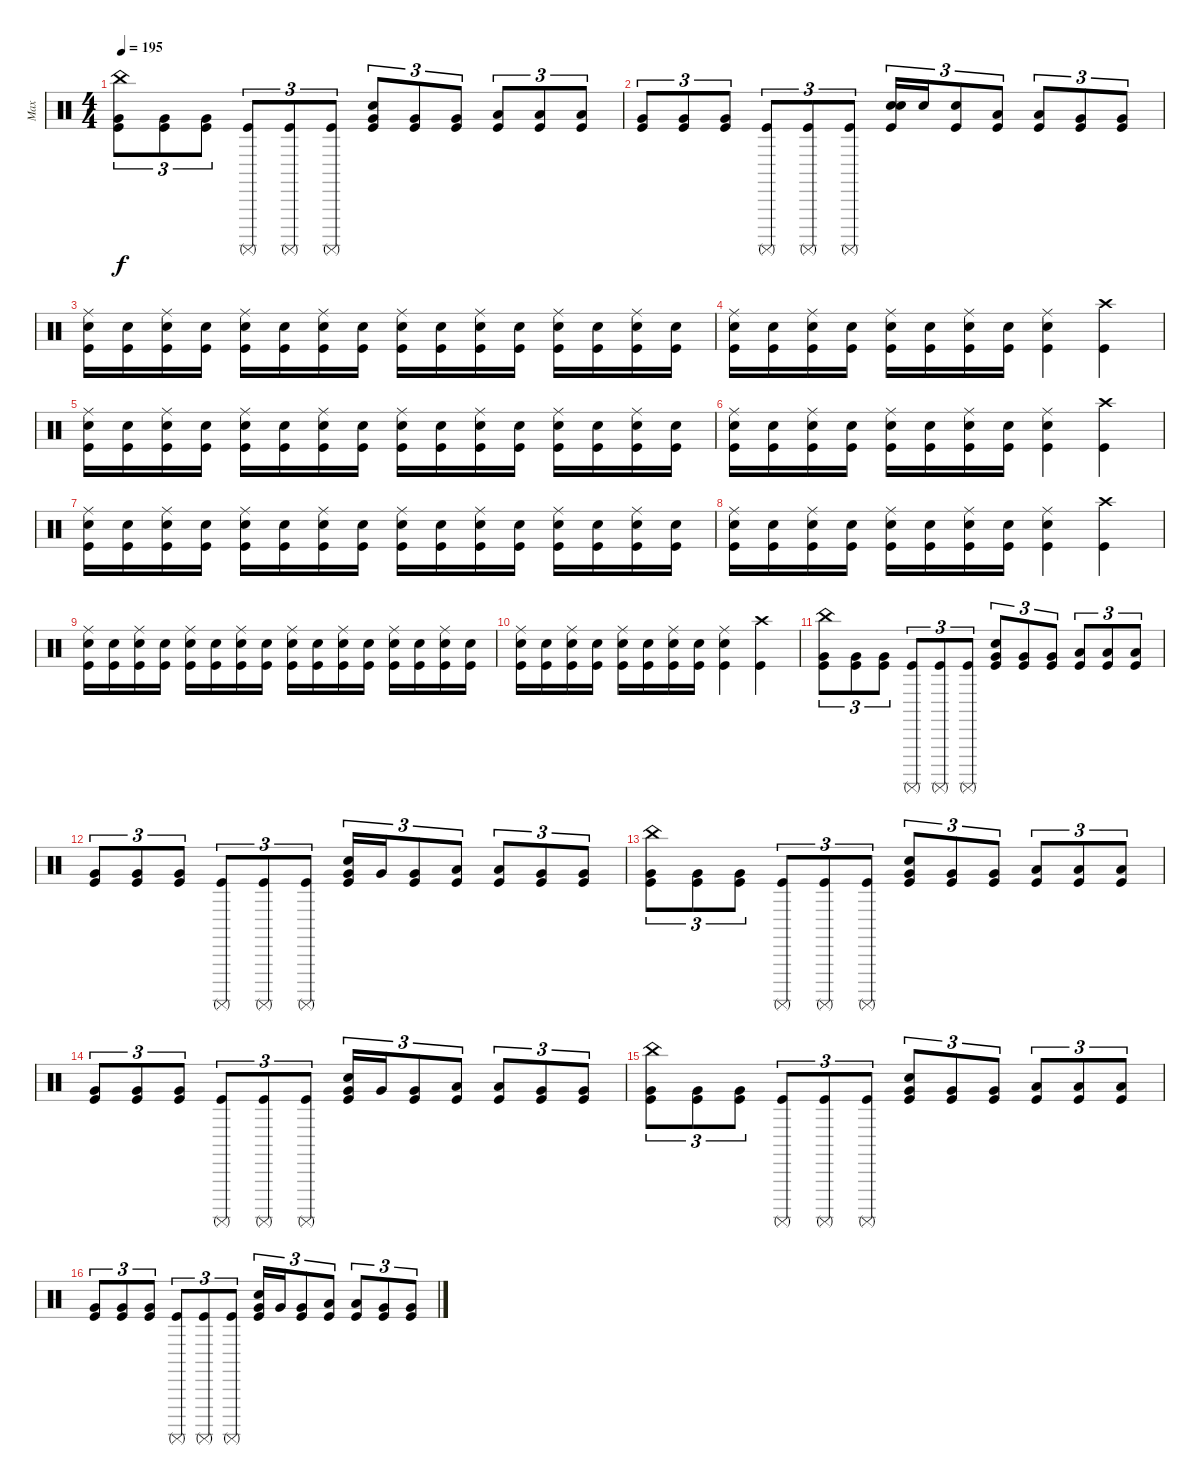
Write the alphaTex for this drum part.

\track ("Max" "Max") {instrument percussion}
\staff {score}
\articulation defaults
\ts (4 4)
\tempo 195
\clef neutral
\ks c
("China (hit)" "Very Low Tom (hit)" "Kick (hit)").8{tu (3 2) dy f} ("Very Low Tom (hit)" "Kick (hit)").8{tu (3 2)} ("Very Low Tom (hit)" "Kick (hit)").8{tu (3 2)} ("Surdo (mute)" "Kick (hit)").8{tu (3 2)} ("Surdo (mute)" "Kick (hit)").8{tu (3 2)} ("Surdo (mute)" "Kick (hit)").8{tu (3 2)} ("Very Low Tom (hit)" "Electric Snare (hit)" "Kick (hit)").8{tu (3 2)} ("Very Low Tom (hit)" "Kick (hit)").8{tu (3 2)} ("Very Low Tom (hit)" "Kick (hit)").8{tu (3 2)} ("Low Tom (hit)" "Kick (hit)").8{tu (3 2)} ("Low Tom (hit)" "Kick (hit)").8{tu (3 2)} ("Low Tom (hit)" "Kick (hit)").8{tu (3 2)} |
("Very Low Tom (hit)" "Kick (hit)").8{tu (3 2)} ("Very Low Tom (hit)" "Kick (hit)").8{tu (3 2)} ("Very Low Tom (hit)" "Kick (hit)").8{tu (3 2)} ("Surdo (mute)" "Kick (hit)").8{tu (3 2)} ("Surdo (mute)" "Kick (hit)").8{tu (3 2)} ("Surdo (mute)" "Kick (hit)").8{tu (3 2)} ("Electric Snare (hit)" "Electric Snare (hit)" "Kick (hit)").16{tu (3 2)} "Electric Snare (hit)".16{tu (3 2)} ("Electric Snare (hit)" "Kick (hit)").8{tu (3 2)} ("Low Tom (hit)" "Kick (hit)").8{tu (3 2)} ("Low Tom (hit)" "Kick (hit)").8{tu (3 2)} ("Very Low Tom (hit)" "Kick (hit)").8{tu (3 2)} ("Very Low Tom (hit)" "Kick (hit)").8{tu (3 2)} |
("Ride (middle)" "Electric Snare (hit)" "Kick (hit)").16 ("Electric Snare (hit)" "Kick (hit)").16 ("Ride (middle)" "Electric Snare (hit)" "Kick (hit)").16 ("Electric Snare (hit)" "Kick (hit)").16 ("Ride (middle)" "Electric Snare (hit)" "Kick (hit)").16 ("Electric Snare (hit)" "Kick (hit)").16 ("Ride (middle)" "Electric Snare (hit)" "Kick (hit)").16 ("Electric Snare (hit)" "Kick (hit)").16 ("Ride (middle)" "Electric Snare (hit)" "Kick (hit)").16 ("Electric Snare (hit)" "Kick (hit)").16 ("Ride (middle)" "Electric Snare (hit)" "Kick (hit)").16 ("Electric Snare (hit)" "Kick (hit)").16 ("Ride (middle)" "Electric Snare (hit)" "Kick (hit)").16 ("Electric Snare (hit)" "Kick (hit)").16 ("Ride (middle)" "Electric Snare (hit)" "Kick (hit)").16 ("Electric Snare (hit)" "Kick (hit)").16 |
("Ride (middle)" "Electric Snare (hit)" "Kick (hit)").16 ("Electric Snare (hit)" "Kick (hit)").16 ("Ride (middle)" "Electric Snare (hit)" "Kick (hit)").16 ("Electric Snare (hit)" "Kick (hit)").16 ("Ride (middle)" "Electric Snare (hit)" "Kick (hit)").16 ("Electric Snare (hit)" "Kick (hit)").16 ("Ride (middle)" "Electric Snare (hit)" "Kick (hit)").16 ("Electric Snare (hit)" "Kick (hit)").16 ("Ride (middle)" "Electric Snare (hit)" "Kick (hit)").4 ("Crash high (hit)" "Kick (hit)").4 |
("Ride (middle)" "Electric Snare (hit)" "Kick (hit)").16 ("Electric Snare (hit)" "Kick (hit)").16 ("Ride (middle)" "Electric Snare (hit)" "Kick (hit)").16 ("Electric Snare (hit)" "Kick (hit)").16 ("Ride (middle)" "Electric Snare (hit)" "Kick (hit)").16 ("Electric Snare (hit)" "Kick (hit)").16 ("Ride (middle)" "Electric Snare (hit)" "Kick (hit)").16 ("Electric Snare (hit)" "Kick (hit)").16 ("Ride (middle)" "Electric Snare (hit)" "Kick (hit)").16 ("Electric Snare (hit)" "Kick (hit)").16 ("Ride (middle)" "Electric Snare (hit)" "Kick (hit)").16 ("Electric Snare (hit)" "Kick (hit)").16 ("Ride (middle)" "Electric Snare (hit)" "Kick (hit)").16 ("Electric Snare (hit)" "Kick (hit)").16 ("Ride (middle)" "Electric Snare (hit)" "Kick (hit)").16 ("Electric Snare (hit)" "Kick (hit)").16 |
("Ride (middle)" "Electric Snare (hit)" "Kick (hit)").16 ("Electric Snare (hit)" "Kick (hit)").16 ("Ride (middle)" "Electric Snare (hit)" "Kick (hit)").16 ("Electric Snare (hit)" "Kick (hit)").16 ("Ride (middle)" "Electric Snare (hit)" "Kick (hit)").16 ("Electric Snare (hit)" "Kick (hit)").16 ("Ride (middle)" "Electric Snare (hit)" "Kick (hit)").16 ("Electric Snare (hit)" "Kick (hit)").16 ("Ride (middle)" "Electric Snare (hit)" "Kick (hit)").4 ("Crash high (hit)" "Kick (hit)").4 |
("Ride (middle)" "Electric Snare (hit)" "Kick (hit)").16 ("Electric Snare (hit)" "Kick (hit)").16 ("Ride (middle)" "Electric Snare (hit)" "Kick (hit)").16 ("Electric Snare (hit)" "Kick (hit)").16 ("Ride (middle)" "Electric Snare (hit)" "Kick (hit)").16 ("Electric Snare (hit)" "Kick (hit)").16 ("Ride (middle)" "Electric Snare (hit)" "Kick (hit)").16 ("Electric Snare (hit)" "Kick (hit)").16 ("Ride (middle)" "Electric Snare (hit)" "Kick (hit)").16 ("Electric Snare (hit)" "Kick (hit)").16 ("Ride (middle)" "Electric Snare (hit)" "Kick (hit)").16 ("Electric Snare (hit)" "Kick (hit)").16 ("Ride (middle)" "Electric Snare (hit)" "Kick (hit)").16 ("Electric Snare (hit)" "Kick (hit)").16 ("Ride (middle)" "Electric Snare (hit)" "Kick (hit)").16 ("Electric Snare (hit)" "Kick (hit)").16 |
("Ride (middle)" "Electric Snare (hit)" "Kick (hit)").16 ("Electric Snare (hit)" "Kick (hit)").16 ("Ride (middle)" "Electric Snare (hit)" "Kick (hit)").16 ("Electric Snare (hit)" "Kick (hit)").16 ("Ride (middle)" "Electric Snare (hit)" "Kick (hit)").16 ("Electric Snare (hit)" "Kick (hit)").16 ("Ride (middle)" "Electric Snare (hit)" "Kick (hit)").16 ("Electric Snare (hit)" "Kick (hit)").16 ("Ride (middle)" "Electric Snare (hit)" "Kick (hit)").4 ("Crash high (hit)" "Kick (hit)").4 |
("Ride (middle)" "Electric Snare (hit)" "Kick (hit)").16 ("Electric Snare (hit)" "Kick (hit)").16 ("Ride (middle)" "Electric Snare (hit)" "Kick (hit)").16 ("Electric Snare (hit)" "Kick (hit)").16 ("Ride (middle)" "Electric Snare (hit)" "Kick (hit)").16 ("Electric Snare (hit)" "Kick (hit)").16 ("Ride (middle)" "Electric Snare (hit)" "Kick (hit)").16 ("Electric Snare (hit)" "Kick (hit)").16 ("Ride (middle)" "Electric Snare (hit)" "Kick (hit)").16 ("Electric Snare (hit)" "Kick (hit)").16 ("Ride (middle)" "Electric Snare (hit)" "Kick (hit)").16 ("Electric Snare (hit)" "Kick (hit)").16 ("Ride (middle)" "Electric Snare (hit)" "Kick (hit)").16 ("Electric Snare (hit)" "Kick (hit)").16 ("Ride (middle)" "Electric Snare (hit)" "Kick (hit)").16 ("Electric Snare (hit)" "Kick (hit)").16 |
("Ride (middle)" "Electric Snare (hit)" "Kick (hit)").16 ("Electric Snare (hit)" "Kick (hit)").16 ("Ride (middle)" "Electric Snare (hit)" "Kick (hit)").16 ("Electric Snare (hit)" "Kick (hit)").16 ("Ride (middle)" "Electric Snare (hit)" "Kick (hit)").16 ("Electric Snare (hit)" "Kick (hit)").16 ("Ride (middle)" "Electric Snare (hit)" "Kick (hit)").16 ("Electric Snare (hit)" "Kick (hit)").16 ("Ride (middle)" "Electric Snare (hit)" "Kick (hit)").4 ("Crash high (hit)" "Kick (hit)").4 |
("China (hit)" "Very Low Tom (hit)" "Kick (hit)").8{tu (3 2)} ("Very Low Tom (hit)" "Kick (hit)").8{tu (3 2)} ("Very Low Tom (hit)" "Kick (hit)").8{tu (3 2)} ("Surdo (mute)" "Kick (hit)").8{tu (3 2)} ("Surdo (mute)" "Kick (hit)").8{tu (3 2)} ("Surdo (mute)" "Kick (hit)").8{tu (3 2)} ("Very Low Tom (hit)" "Electric Snare (hit)" "Kick (hit)").8{tu (3 2)} ("Very Low Tom (hit)" "Kick (hit)").8{tu (3 2)} ("Very Low Tom (hit)" "Kick (hit)").8{tu (3 2)} ("Low Tom (hit)" "Kick (hit)").8{tu (3 2)} ("Low Tom (hit)" "Kick (hit)").8{tu (3 2)} ("Low Tom (hit)" "Kick (hit)").8{tu (3 2)} |
("Very Low Tom (hit)" "Kick (hit)").8{tu (3 2)} ("Very Low Tom (hit)" "Kick (hit)").8{tu (3 2)} ("Very Low Tom (hit)" "Kick (hit)").8{tu (3 2)} ("Surdo (mute)" "Kick (hit)").8{tu (3 2)} ("Surdo (mute)" "Kick (hit)").8{tu (3 2)} ("Surdo (mute)" "Kick (hit)").8{tu (3 2)} ("Very Low Tom (hit)" "Electric Snare (hit)" "Kick (hit)").16{tu (3 2)} "Very Low Tom (hit)".16{tu (3 2)} ("Very Low Tom (hit)" "Kick (hit)").8{tu (3 2)} ("Low Tom (hit)" "Kick (hit)").8{tu (3 2)} ("Low Tom (hit)" "Kick (hit)").8{tu (3 2)} ("Very Low Tom (hit)" "Kick (hit)").8{tu (3 2)} ("Very Low Tom (hit)" "Kick (hit)").8{tu (3 2)} |
("China (hit)" "Very Low Tom (hit)" "Kick (hit)").8{tu (3 2)} ("Very Low Tom (hit)" "Kick (hit)").8{tu (3 2)} ("Very Low Tom (hit)" "Kick (hit)").8{tu (3 2)} ("Surdo (mute)" "Kick (hit)").8{tu (3 2)} ("Surdo (mute)" "Kick (hit)").8{tu (3 2)} ("Surdo (mute)" "Kick (hit)").8{tu (3 2)} ("Very Low Tom (hit)" "Electric Snare (hit)" "Kick (hit)").8{tu (3 2)} ("Very Low Tom (hit)" "Kick (hit)").8{tu (3 2)} ("Very Low Tom (hit)" "Kick (hit)").8{tu (3 2)} ("Low Tom (hit)" "Kick (hit)").8{tu (3 2)} ("Low Tom (hit)" "Kick (hit)").8{tu (3 2)} ("Low Tom (hit)" "Kick (hit)").8{tu (3 2)} |
("Very Low Tom (hit)" "Kick (hit)").8{tu (3 2)} ("Very Low Tom (hit)" "Kick (hit)").8{tu (3 2)} ("Very Low Tom (hit)" "Kick (hit)").8{tu (3 2)} ("Surdo (mute)" "Kick (hit)").8{tu (3 2)} ("Surdo (mute)" "Kick (hit)").8{tu (3 2)} ("Surdo (mute)" "Kick (hit)").8{tu (3 2)} ("Very Low Tom (hit)" "Electric Snare (hit)" "Kick (hit)").16{tu (3 2)} "Very Low Tom (hit)".16{tu (3 2)} ("Very Low Tom (hit)" "Kick (hit)").8{tu (3 2)} ("Low Tom (hit)" "Kick (hit)").8{tu (3 2)} ("Low Tom (hit)" "Kick (hit)").8{tu (3 2)} ("Very Low Tom (hit)" "Kick (hit)").8{tu (3 2)} ("Very Low Tom (hit)" "Kick (hit)").8{tu (3 2)} |
("China (hit)" "Very Low Tom (hit)" "Kick (hit)").8{tu (3 2)} ("Very Low Tom (hit)" "Kick (hit)").8{tu (3 2)} ("Very Low Tom (hit)" "Kick (hit)").8{tu (3 2)} ("Surdo (mute)" "Kick (hit)").8{tu (3 2)} ("Surdo (mute)" "Kick (hit)").8{tu (3 2)} ("Surdo (mute)" "Kick (hit)").8{tu (3 2)} ("Very Low Tom (hit)" "Electric Snare (hit)" "Kick (hit)").8{tu (3 2)} ("Very Low Tom (hit)" "Kick (hit)").8{tu (3 2)} ("Very Low Tom (hit)" "Kick (hit)").8{tu (3 2)} ("Low Tom (hit)" "Kick (hit)").8{tu (3 2)} ("Low Tom (hit)" "Kick (hit)").8{tu (3 2)} ("Low Tom (hit)" "Kick (hit)").8{tu (3 2)} |
("Very Low Tom (hit)" "Kick (hit)").8{tu (3 2)} ("Very Low Tom (hit)" "Kick (hit)").8{tu (3 2)} ("Very Low Tom (hit)" "Kick (hit)").8{tu (3 2)} ("Surdo (mute)" "Kick (hit)").8{tu (3 2)} ("Surdo (mute)" "Kick (hit)").8{tu (3 2)} ("Surdo (mute)" "Kick (hit)").8{tu (3 2)} ("Very Low Tom (hit)" "Electric Snare (hit)" "Kick (hit)").16{tu (3 2)} "Very Low Tom (hit)".16{tu (3 2)} ("Very Low Tom (hit)" "Kick (hit)").8{tu (3 2)} ("Low Tom (hit)" "Kick (hit)").8{tu (3 2)} ("Low Tom (hit)" "Kick (hit)").8{tu (3 2)} ("Very Low Tom (hit)" "Kick (hit)").8{tu (3 2)} ("Very Low Tom (hit)" "Kick (hit)").8{tu (3 2)}
